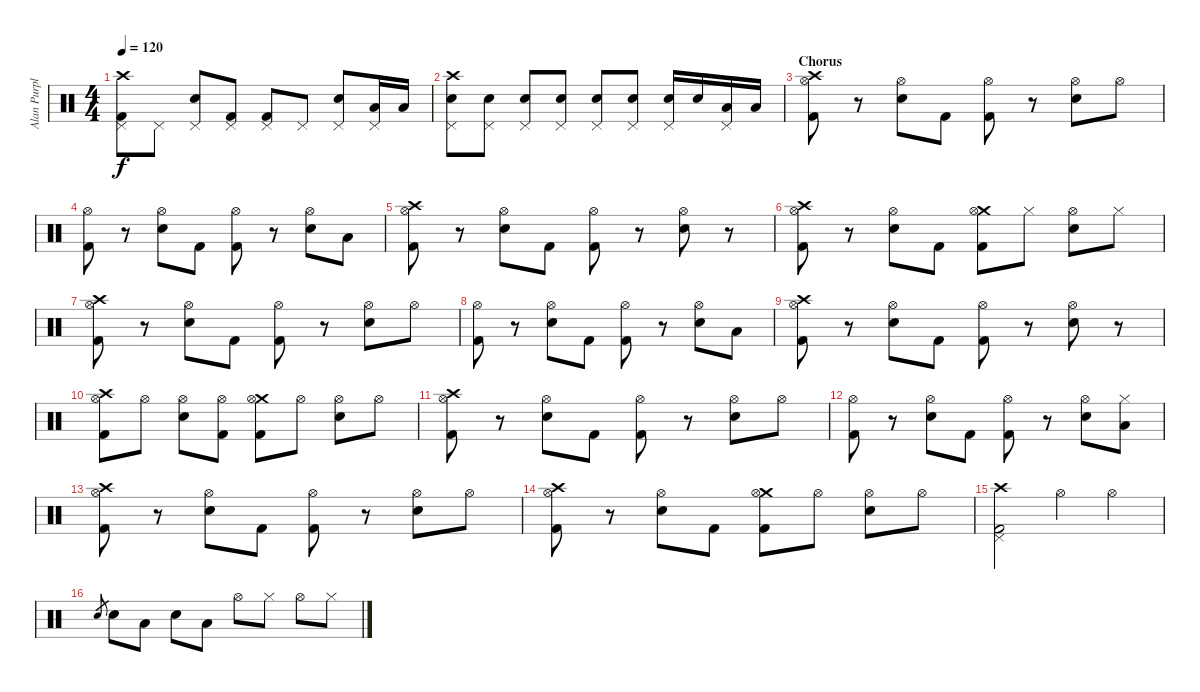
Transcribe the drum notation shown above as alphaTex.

\track ("Alan Purple" "Alan Purpl") {instrument percussion}
\staff {score}
\articulation defaults
\ts (4 4)
\tempo 120
\clef neutral
\ks c
("Crash high (hit)" "Pedal Hi-Hat (hit)" "Kick (hit) 2").8{dy f} "Pedal Hi-Hat (hit)".8 ("Pedal Hi-Hat (hit)" "Snare (hit) 2").8 ("Pedal Hi-Hat (hit)" "Kick (hit) 2").8 ("Pedal Hi-Hat (hit)" "Kick (hit) 2").8 "Pedal Hi-Hat (hit)".8 ("Pedal Hi-Hat (hit)" "Snare (hit) 2").8 ("Pedal Hi-Hat (hit)" "Low Tom (hit)").16 "Low Tom (hit)".16 |
("Crash high (hit)" "Pedal Hi-Hat (hit)" "Snare (hit) 2").8 ("Pedal Hi-Hat (hit)" "Snare (hit) 2").8 ("Pedal Hi-Hat (hit)" "Snare (hit) 2").8 ("Pedal Hi-Hat (hit)" "Snare (hit) 2").8 ("Pedal Hi-Hat (hit)" "Snare (hit) 2").8 ("Pedal Hi-Hat (hit)" "Snare (hit) 2").8 ("Pedal Hi-Hat (hit)" "Electric Snare (hit)").16 "Electric Snare (hit)".16 ("Pedal Hi-Hat (hit)" "Low Tom (hit)").16 "Low Tom (hit)".16 |
\section ("" "Chorus")
("Crash high (hit)" "Hi-Hat (open)" "Kick (hit) 2").8 r.8 ("Hi-Hat (open)" "Snare (hit) 2").8 "Kick (hit) 2".8 ("Hi-Hat (open)" "Kick (hit) 2").8 r.8 ("Hi-Hat (open)" "Snare (hit) 2").8 "Hi-Hat (open)".8 |
("Hi-Hat (open)" "Kick (hit) 2").8 r.8 ("Hi-Hat (open)" "Snare (hit) 2").8 "Kick (hit) 2".8 ("Hi-Hat (open)" "Kick (hit) 2").8 r.8 ("Hi-Hat (open)" "Snare (hit) 2").8 "Low Tom (hit)".8 |
("Crash high (hit)" "Hi-Hat (open)" "Kick (hit) 2").8 r.8 ("Hi-Hat (open)" "Snare (hit) 2").8 "Kick (hit) 2".8 ("Hi-Hat (open)" "Kick (hit) 2").8 r.8 ("Hi-Hat (open)" "Snare (hit) 2").8 r.8 |
("Crash high (hit)" "Hi-Hat (open)" "Kick (hit) 2").8 r.8 ("Hi-Hat (open)" "Snare (hit) 2").8 "Kick (hit) 2".8 ("Crash medium (hit)" "Hi-Hat (open)" "Kick (hit) 2").8 "Hi-Hat (closed)".8 ("Hi-Hat (open)" "Snare (hit) 2").8 "Hi-Hat (closed)".8 |
("Crash high (hit)" "Hi-Hat (open)" "Kick (hit) 2").8 r.8 ("Hi-Hat (open)" "Snare (hit) 2").8 "Kick (hit) 2".8 ("Hi-Hat (open)" "Kick (hit) 2").8 r.8 ("Hi-Hat (open)" "Snare (hit) 2").8 "Hi-Hat (open)".8 |
("Hi-Hat (open)" "Kick (hit) 2").8 r.8 ("Hi-Hat (open)" "Snare (hit) 2").8 "Kick (hit) 2".8 ("Hi-Hat (open)" "Kick (hit) 2").8 r.8 ("Hi-Hat (open)" "Snare (hit) 2").8 "Low Tom (hit)".8 |
("Crash high (hit)" "Hi-Hat (open)" "Kick (hit) 2").8 r.8 ("Hi-Hat (open)" "Snare (hit) 2").8 "Kick (hit) 2".8 ("Hi-Hat (open)" "Kick (hit) 2").8 r.8 ("Hi-Hat (open)" "Snare (hit) 2").8 r.8 |
("Crash high (hit)" "Hi-Hat (open)" "Kick (hit) 2").8 "Hi-Hat (open)".8 ("Hi-Hat (open)" "Snare (hit) 2").8 ("Hi-Hat (open)" "Kick (hit) 2").8 ("Crash medium (hit)" "Hi-Hat (open)" "Kick (hit) 2").8 "Hi-Hat (open)".8 ("Hi-Hat (open)" "Snare (hit) 2").8 "Hi-Hat (open)".8 |
("Crash high (hit)" "Hi-Hat (open)" "Kick (hit) 2").8 r.8 ("Hi-Hat (open)" "Snare (hit) 2").8 "Kick (hit) 2".8 ("Hi-Hat (open)" "Kick (hit) 2").8 r.8 ("Hi-Hat (open)" "Snare (hit) 2").8 "Hi-Hat (open)".8 |
("Hi-Hat (open)" "Kick (hit) 2").8 r.8 ("Hi-Hat (open)" "Snare (hit) 2").8 "Kick (hit) 2".8 ("Hi-Hat (open)" "Kick (hit) 2").8 r.8 ("Hi-Hat (open)" "Snare (hit) 2").8 ("Hi-Hat (closed)" "Low Tom (hit)").8 |
("Crash high (hit)" "Hi-Hat (open)" "Kick (hit) 2").8 r.8 ("Hi-Hat (open)" "Snare (hit) 2").8 "Kick (hit) 2".8 ("Hi-Hat (open)" "Kick (hit) 2").8 r.8 ("Hi-Hat (open)" "Snare (hit) 2").8 "Hi-Hat (open)".8 |
("Crash high (hit)" "Hi-Hat (open)" "Kick (hit) 2").8 r.8 ("Hi-Hat (open)" "Snare (hit) 2").8 "Kick (hit) 2".8 ("Crash medium (hit)" "Hi-Hat (open)" "Kick (hit) 2").8 "Hi-Hat (open)".8 ("Hi-Hat (open)" "Snare (hit) 2").8 "Hi-Hat (open)".8 |
("Crash high (hit)" "Pedal Hi-Hat (hit)" "Kick (hit) 2").2 "Hi-Hat (open)".4 "Hi-Hat (open)".4 |
"Snare (hit) 2".8{gr} "Snare (hit) 2".8 "Low Tom (hit)".8 "Snare (hit) 2".8 "Low Tom (hit)".8 "Hi-Hat (open)".8 "Hi-Hat (closed)".8 "Hi-Hat (open)".8 "Hi-Hat (closed)".8
